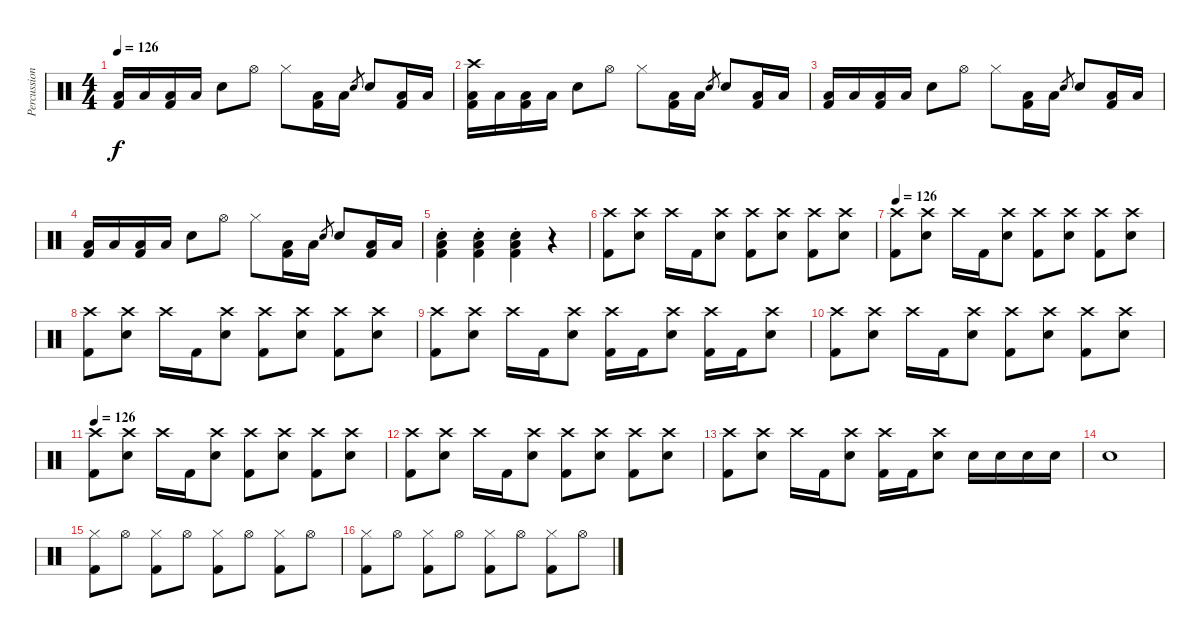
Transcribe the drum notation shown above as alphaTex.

\track ("Percussion" "Percussion") {instrument percussion}
\staff {score}
\articulation defaults
\ts (4 4)
\tempo 126
\clef neutral
\ks c
("Low Floor Tom (hit)" "Kick (hit) 2").16{dy f} "Low Floor Tom (hit)".16 ("Low Floor Tom (hit)" "Kick (hit) 2").16 "Low Floor Tom (hit)".16 "Snare (hit) 2".8 "Hi-Hat (open)".8 "Hi-Hat (closed)".8 ("Low Floor Tom (hit)" "Kick (hit) 2").16 "Low Floor Tom (hit)".16 "Snare (hit) 2".8{gr} "Snare (hit) 2".8 ("Low Floor Tom (hit)" "Kick (hit) 2").16 "Low Floor Tom (hit)".16 |
("Crash high (hit)" "Low Floor Tom (hit)" "Kick (hit) 2").16 "Low Floor Tom (hit)".16 ("Low Floor Tom (hit)" "Kick (hit) 2").16 "Low Floor Tom (hit)".16 "Snare (hit) 2".8 "Hi-Hat (open)".8 "Hi-Hat (closed)".8 ("Low Floor Tom (hit)" "Kick (hit) 2").16 "Low Floor Tom (hit)".16 "Snare (hit) 2".8{gr} "Snare (hit) 2".8 ("Low Floor Tom (hit)" "Kick (hit) 2").16 "Low Floor Tom (hit)".16 |
("Low Floor Tom (hit)" "Kick (hit) 2").16 "Low Floor Tom (hit)".16 ("Low Floor Tom (hit)" "Kick (hit) 2").16 "Low Floor Tom (hit)".16 "Snare (hit) 2".8 "Hi-Hat (open)".8 "Hi-Hat (closed)".8 ("Low Floor Tom (hit)" "Kick (hit) 2").16 "Low Floor Tom (hit)".16 "Snare (hit) 2".8{gr} "Snare (hit) 2".8 ("Low Floor Tom (hit)" "Kick (hit) 2").16 "Low Floor Tom (hit)".16 |
("Low Floor Tom (hit)" "Kick (hit) 2").16 "Low Floor Tom (hit)".16 ("Low Floor Tom (hit)" "Kick (hit) 2").16 "Low Floor Tom (hit)".16 "Snare (hit) 2".8 "Hi-Hat (open)".8 "Hi-Hat (closed)".8 ("Low Floor Tom (hit)" "Kick (hit) 2").16 "Low Floor Tom (hit)".16 "Snare (hit) 2".8{gr} "Snare (hit) 2".8 ("Low Floor Tom (hit)" "Kick (hit) 2").16 "Low Floor Tom (hit)".16 |
("Snare (hit) 2"{st} "Low Floor Tom (hit)"{st} "Kick (hit) 2"{st}).4 ("Snare (hit) 2"{st} "Low Floor Tom (hit)"{st} "Kick (hit) 2"{st}).4 ("Snare (hit) 2"{st} "Low Floor Tom (hit)"{st} "Kick (hit) 2"{st}).4 r.4 |
("Crash high (hit)" "Kick (hit) 2").8 ("Crash high (hit)" "Snare (hit) 2").8 "Crash high (hit)".16 "Kick (hit) 2".16 ("Crash high (hit)" "Snare (hit) 2").8 ("Crash high (hit)" "Kick (hit) 2").8 ("Crash high (hit)" "Snare (hit) 2").8 ("Crash high (hit)" "Kick (hit) 2").8 ("Crash high (hit)" "Snare (hit) 2").8 |
\tempo 126
("Crash high (hit)" "Kick (hit) 2").8 ("Crash high (hit)" "Snare (hit) 2").8 "Crash high (hit)".16 "Kick (hit) 2".16 ("Crash high (hit)" "Snare (hit) 2").8 ("Crash high (hit)" "Kick (hit) 2").8 ("Crash high (hit)" "Snare (hit) 2").8 ("Crash high (hit)" "Kick (hit) 2").8 ("Crash high (hit)" "Snare (hit) 2").8 |
("Crash high (hit)" "Kick (hit) 2").8 ("Crash high (hit)" "Snare (hit) 2").8 "Crash high (hit)".16 "Kick (hit) 2".16 ("Crash high (hit)" "Snare (hit) 2").8 ("Crash high (hit)" "Kick (hit) 2").8 ("Crash high (hit)" "Snare (hit) 2").8 ("Crash high (hit)" "Kick (hit) 2").8 ("Crash high (hit)" "Snare (hit) 2").8 |
("Crash high (hit)" "Kick (hit) 2").8 ("Crash high (hit)" "Snare (hit) 2").8 "Crash high (hit)".16 "Kick (hit) 2".16 ("Crash high (hit)" "Snare (hit) 2").8 ("Crash high (hit)" "Kick (hit) 2").16 "Kick (hit) 2".16 ("Crash high (hit)" "Snare (hit) 2").8 ("Crash high (hit)" "Kick (hit) 2").16 "Kick (hit) 2".16 ("Crash high (hit)" "Snare (hit) 2").8 |
("Crash high (hit)" "Kick (hit) 2").8 ("Crash high (hit)" "Snare (hit) 2").8 "Crash high (hit)".16 "Kick (hit) 2".16 ("Crash high (hit)" "Snare (hit) 2").8 ("Crash high (hit)" "Kick (hit) 2").8 ("Crash high (hit)" "Snare (hit) 2").8 ("Crash high (hit)" "Kick (hit) 2").8 ("Crash high (hit)" "Snare (hit) 2").8 |
\tempo 126
("Crash high (hit)" "Kick (hit) 2").8 ("Crash high (hit)" "Snare (hit) 2").8 "Crash high (hit)".16 "Kick (hit) 2".16 ("Crash high (hit)" "Snare (hit) 2").8 ("Crash high (hit)" "Kick (hit) 2").8 ("Crash high (hit)" "Snare (hit) 2").8 ("Crash high (hit)" "Kick (hit) 2").8 ("Crash high (hit)" "Snare (hit) 2").8 |
("Crash high (hit)" "Kick (hit) 2").8 ("Crash high (hit)" "Snare (hit) 2").8 "Crash high (hit)".16 "Kick (hit) 2".16 ("Crash high (hit)" "Snare (hit) 2").8 ("Crash high (hit)" "Kick (hit) 2").8 ("Crash high (hit)" "Snare (hit) 2").8 ("Crash high (hit)" "Kick (hit) 2").8 ("Crash high (hit)" "Snare (hit) 2").8 |
("Crash high (hit)" "Kick (hit) 2").8 ("Crash high (hit)" "Snare (hit) 2").8 "Crash high (hit)".16 "Kick (hit) 2".16 ("Crash high (hit)" "Snare (hit) 2").8 ("Crash high (hit)" "Kick (hit) 2").16 "Kick (hit) 2".16 ("Crash high (hit)" "Snare (hit) 2").8 "Snare (hit) 2".16 "Snare (hit) 2".16 "Snare (hit) 2".16 "Snare (hit) 2".16 |
"Snare (hit) 2".1 |
("Hi-Hat (closed)" "Kick (hit) 2").8 "Hi-Hat (open)".8 ("Hi-Hat (closed)" "Kick (hit) 2").8 "Hi-Hat (open)".8 ("Hi-Hat (closed)" "Kick (hit) 2").8 "Hi-Hat (open)".8 ("Hi-Hat (closed)" "Kick (hit) 2").8 "Hi-Hat (open)".8 |
("Hi-Hat (closed)" "Kick (hit) 2").8 "Hi-Hat (open)".8 ("Hi-Hat (closed)" "Kick (hit) 2").8 "Hi-Hat (open)".8 ("Hi-Hat (closed)" "Kick (hit) 2").8 "Hi-Hat (open)".8 ("Hi-Hat (closed)" "Kick (hit) 2").8 "Hi-Hat (open)".8
